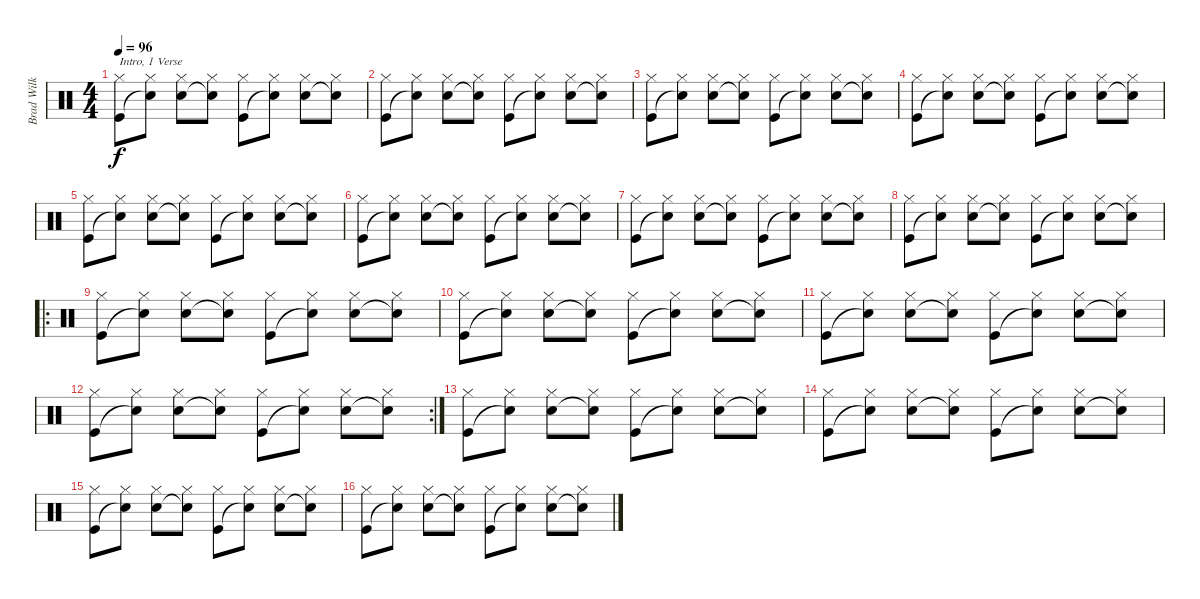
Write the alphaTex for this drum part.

\track ("Brad Wilk" "Brad Wilk") {instrument percussion}
\staff {score}
\articulation defaults
\ts (4 4)
\tempo 96
\clef neutral
\ks c
("Hi-Hat (closed)" "Kick (hit)").8{txt "Intro, 1 Verse" dy f} ("Hi-Hat (closed)" "Snare (hit)"{t}).8 ("Hi-Hat (closed)" "Snare (hit) 2").8 ("Hi-Hat (closed)" "Snare (hit)"{t}).8 ("Hi-Hat (closed)" "Kick (hit)").8 ("Hi-Hat (closed)" "Snare (hit)"{t}).8 ("Hi-Hat (closed)" "Snare (hit) 2").8 ("Hi-Hat (closed)" "Snare (hit)"{t}).8 |
("Hi-Hat (closed)" "Kick (hit)").8 ("Hi-Hat (closed)" "Snare (hit)"{t}).8 ("Hi-Hat (closed)" "Snare (hit) 2").8 ("Hi-Hat (closed)" "Snare (hit)"{t}).8 ("Hi-Hat (closed)" "Kick (hit)").8 ("Hi-Hat (closed)" "Snare (hit)"{t}).8 ("Hi-Hat (closed)" "Snare (hit) 2").8 ("Hi-Hat (closed)" "Snare (hit)"{t}).8 |
("Hi-Hat (closed)" "Kick (hit)").8 ("Hi-Hat (closed)" "Snare (hit)"{t}).8 ("Hi-Hat (closed)" "Snare (hit) 2").8 ("Hi-Hat (closed)" "Snare (hit)"{t}).8 ("Hi-Hat (closed)" "Kick (hit)").8 ("Hi-Hat (closed)" "Snare (hit)"{t}).8 ("Hi-Hat (closed)" "Snare (hit) 2").8 ("Hi-Hat (closed)" "Snare (hit)"{t}).8 |
("Hi-Hat (closed)" "Kick (hit)").8 ("Hi-Hat (closed)" "Snare (hit)"{t}).8 ("Hi-Hat (closed)" "Snare (hit) 2").8 ("Hi-Hat (closed)" "Snare (hit)"{t}).8 ("Hi-Hat (closed)" "Kick (hit)").8 ("Hi-Hat (closed)" "Snare (hit)"{t}).8 ("Hi-Hat (closed)" "Snare (hit) 2").8 ("Hi-Hat (closed)" "Snare (hit)"{t}).8 |
("Hi-Hat (closed)" "Kick (hit)").8 ("Hi-Hat (closed)" "Snare (hit)"{t}).8 ("Hi-Hat (closed)" "Snare (hit) 2").8 ("Hi-Hat (closed)" "Snare (hit)"{t}).8 ("Hi-Hat (closed)" "Kick (hit)").8 ("Hi-Hat (closed)" "Snare (hit)"{t}).8 ("Hi-Hat (closed)" "Snare (hit) 2").8 ("Hi-Hat (closed)" "Snare (hit)"{t}).8 |
("Hi-Hat (closed)" "Kick (hit)").8 ("Hi-Hat (closed)" "Snare (hit)"{t}).8 ("Hi-Hat (closed)" "Snare (hit) 2").8 ("Hi-Hat (closed)" "Snare (hit)"{t}).8 ("Hi-Hat (closed)" "Kick (hit)").8 ("Hi-Hat (closed)" "Snare (hit)"{t}).8 ("Hi-Hat (closed)" "Snare (hit) 2").8 ("Hi-Hat (closed)" "Snare (hit)"{t}).8 |
("Hi-Hat (closed)" "Kick (hit)").8 ("Hi-Hat (closed)" "Snare (hit)"{t}).8 ("Hi-Hat (closed)" "Snare (hit) 2").8 ("Hi-Hat (closed)" "Snare (hit)"{t}).8 ("Hi-Hat (closed)" "Kick (hit)").8 ("Hi-Hat (closed)" "Snare (hit)"{t}).8 ("Hi-Hat (closed)" "Snare (hit) 2").8 ("Hi-Hat (closed)" "Snare (hit)"{t}).8 |
("Hi-Hat (closed)" "Kick (hit)").8 ("Hi-Hat (closed)" "Snare (hit)"{t}).8 ("Hi-Hat (closed)" "Snare (hit) 2").8 ("Hi-Hat (closed)" "Snare (hit)"{t}).8 ("Hi-Hat (closed)" "Kick (hit)").8 ("Hi-Hat (closed)" "Snare (hit)"{t}).8 ("Hi-Hat (closed)" "Snare (hit) 2").8 ("Hi-Hat (closed)" "Snare (hit)"{t}).8 |
\ro
("Hi-Hat (closed)" "Kick (hit)").8 ("Hi-Hat (closed)" "Snare (hit)"{t}).8 ("Hi-Hat (closed)" "Snare (hit) 2").8 ("Hi-Hat (closed)" "Snare (hit)"{t}).8 ("Hi-Hat (closed)" "Kick (hit)").8 ("Hi-Hat (closed)" "Snare (hit)"{t}).8 ("Hi-Hat (closed)" "Snare (hit) 2").8 ("Hi-Hat (closed)" "Snare (hit)"{t}).8 |
("Hi-Hat (closed)" "Kick (hit)").8 ("Hi-Hat (closed)" "Snare (hit)"{t}).8 ("Hi-Hat (closed)" "Snare (hit) 2").8 ("Hi-Hat (closed)" "Snare (hit)"{t}).8 ("Hi-Hat (closed)" "Kick (hit)").8 ("Hi-Hat (closed)" "Snare (hit)"{t}).8 ("Hi-Hat (closed)" "Snare (hit) 2").8 ("Hi-Hat (closed)" "Snare (hit)"{t}).8 |
("Hi-Hat (closed)" "Kick (hit)").8 ("Hi-Hat (closed)" "Snare (hit)"{t}).8 ("Hi-Hat (closed)" "Snare (hit) 2").8 ("Hi-Hat (closed)" "Snare (hit)"{t}).8 ("Hi-Hat (closed)" "Kick (hit)").8 ("Hi-Hat (closed)" "Snare (hit)"{t}).8 ("Hi-Hat (closed)" "Snare (hit) 2").8 ("Hi-Hat (closed)" "Snare (hit)"{t}).8 |
\rc 2
("Hi-Hat (closed)" "Kick (hit)").8 ("Hi-Hat (closed)" "Snare (hit)"{t}).8 ("Hi-Hat (closed)" "Snare (hit) 2").8 ("Hi-Hat (closed)" "Snare (hit)"{t}).8 ("Hi-Hat (closed)" "Kick (hit)").8 ("Hi-Hat (closed)" "Snare (hit)"{t}).8 ("Hi-Hat (closed)" "Snare (hit) 2").8 ("Hi-Hat (closed)" "Snare (hit)"{t}).8 |
("Hi-Hat (closed)" "Kick (hit)").8 ("Hi-Hat (closed)" "Snare (hit)"{t}).8 ("Hi-Hat (closed)" "Snare (hit) 2").8 ("Hi-Hat (closed)" "Snare (hit)"{t}).8 ("Hi-Hat (closed)" "Kick (hit)").8 ("Hi-Hat (closed)" "Snare (hit)"{t}).8 ("Hi-Hat (closed)" "Snare (hit) 2").8 ("Hi-Hat (closed)" "Snare (hit)"{t}).8 |
("Hi-Hat (closed)" "Kick (hit)").8 ("Hi-Hat (closed)" "Snare (hit)"{t}).8 ("Hi-Hat (closed)" "Snare (hit) 2").8 ("Hi-Hat (closed)" "Snare (hit)"{t}).8 ("Hi-Hat (closed)" "Kick (hit)").8 ("Hi-Hat (closed)" "Snare (hit)"{t}).8 ("Hi-Hat (closed)" "Snare (hit) 2").8 ("Hi-Hat (closed)" "Snare (hit)"{t}).8 |
("Hi-Hat (closed)" "Kick (hit)").8 ("Hi-Hat (closed)" "Snare (hit)"{t}).8 ("Hi-Hat (closed)" "Snare (hit) 2").8 ("Hi-Hat (closed)" "Snare (hit)"{t}).8 ("Hi-Hat (closed)" "Kick (hit)").8 ("Hi-Hat (closed)" "Snare (hit)"{t}).8 ("Hi-Hat (closed)" "Snare (hit) 2").8 ("Hi-Hat (closed)" "Snare (hit)"{t}).8 |
("Hi-Hat (closed)" "Kick (hit)").8 ("Hi-Hat (closed)" "Snare (hit)"{t}).8 ("Hi-Hat (closed)" "Snare (hit) 2").8 ("Hi-Hat (closed)" "Snare (hit)"{t}).8 ("Hi-Hat (closed)" "Kick (hit)").8 ("Hi-Hat (closed)" "Snare (hit)"{t}).8 ("Hi-Hat (closed)" "Snare (hit) 2").8 ("Hi-Hat (closed)" "Snare (hit)"{t}).8
